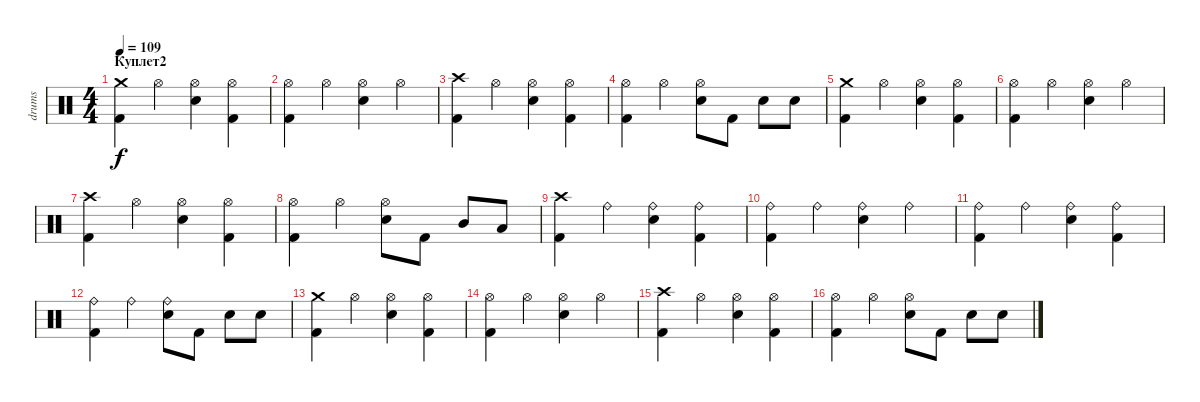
\track ("drums" "drums") {instrument percussion}
\staff {score}
\articulation defaults
\ts (4 4)
\section ("" "Куплет2")
\tempo 109
\clef neutral
\ks c
("Kick (hit) 2" "Crash medium (hit)").4{dy f} "Hi-Hat (open)".4 ("Electric Snare (hit)" "Hi-Hat (open)").4 ("Kick (hit) 2" "Hi-Hat (open)").4 |
("Hi-Hat (open)" "Kick (hit) 2").4 "Hi-Hat (open)".4 ("Hi-Hat (open)" "Electric Snare (hit)").4 "Hi-Hat (open)".4 |
("Kick (hit) 2" "Crash high (hit)").4 "Hi-Hat (open)".4 ("Electric Snare (hit)" "Hi-Hat (open)").4 ("Kick (hit) 2" "Hi-Hat (open)").4 |
("Hi-Hat (open)" "Kick (hit) 2").4 "Hi-Hat (open)".4 ("Electric Snare (hit)" "Hi-Hat (open)").8 "Kick (hit) 2".8 "Electric Snare (hit)".8 "Electric Snare (hit)".8 |
("Kick (hit) 2" "Crash medium (hit)").4 "Hi-Hat (open)".4 ("Electric Snare (hit)" "Hi-Hat (open)").4 ("Kick (hit) 2" "Hi-Hat (open)").4 |
("Hi-Hat (open)" "Kick (hit) 2").4 "Hi-Hat (open)".4 ("Hi-Hat (open)" "Electric Snare (hit)").4 "Hi-Hat (open)".4 |
("Kick (hit) 2" "Crash high (hit)").4 "Hi-Hat (open)".4 ("Electric Snare (hit)" "Hi-Hat (open)").4 ("Kick (hit) 2" "Hi-Hat (open)").4 |
("Hi-Hat (open)" "Kick (hit) 2").4 "Hi-Hat (open)".4 ("Electric Snare (hit)" "Hi-Hat (open)").8 "Kick (hit) 2".8 "Mid Tom (hit)".8 "Low Tom (hit)".8 |
("Crash high (hit)" "Kick (hit) 2").4 "Ride (bell)".4 ("Ride (bell)" "Electric Snare (hit)").4 ("Ride (bell)" "Kick (hit) 2").4 |
("Ride (bell)" "Kick (hit) 2").4 "Ride (bell)".4 ("Ride (bell)" "Electric Snare (hit)").4 "Ride (bell)".4 |
("Ride (bell)" "Kick (hit) 2").4 "Ride (bell)".4 ("Ride (bell)" "Electric Snare (hit)").4 ("Ride (bell)" "Kick (hit) 2").4 |
("Ride (bell)" "Kick (hit) 2").4 "Ride (bell)".4 ("Ride (bell)" "Electric Snare (hit)").8 "Kick (hit) 2".8 "Electric Snare (hit)".8 "Electric Snare (hit)".8 |
("Kick (hit) 2" "Crash medium (hit)").4 "Hi-Hat (open)".4 ("Electric Snare (hit)" "Hi-Hat (open)").4 ("Kick (hit) 2" "Hi-Hat (open)").4 |
("Hi-Hat (open)" "Kick (hit) 2").4 "Hi-Hat (open)".4 ("Hi-Hat (open)" "Electric Snare (hit)").4 "Hi-Hat (open)".4 |
("Kick (hit) 2" "Crash high (hit)").4 "Hi-Hat (open)".4 ("Electric Snare (hit)" "Hi-Hat (open)").4 ("Kick (hit) 2" "Hi-Hat (open)").4 |
("Hi-Hat (open)" "Kick (hit) 2").4 "Hi-Hat (open)".4 ("Electric Snare (hit)" "Hi-Hat (open)").8 "Kick (hit) 2".8 "Electric Snare (hit)".8 "Electric Snare (hit)".8
